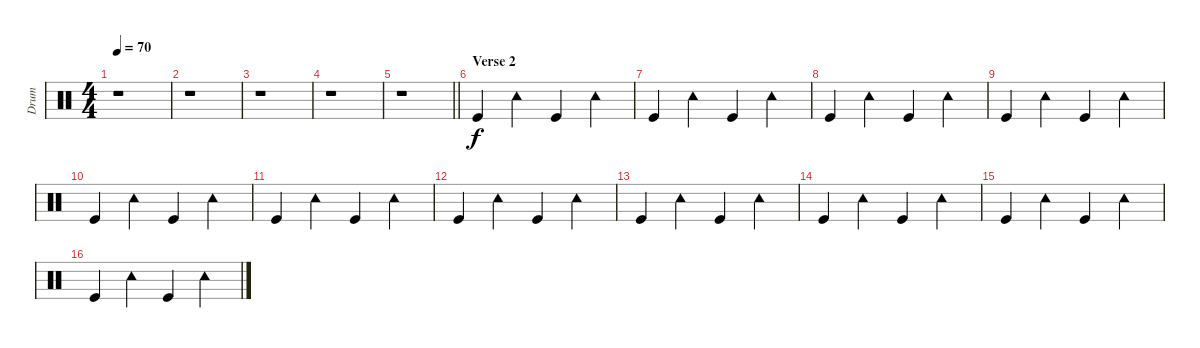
\track ("Drum" "Drum") {instrument percussion}
\staff {score}
\articulation defaults
\ts (4 4)
\tempo 70
\clef neutral
\ks c
r.1{dy f} |
r.1 |
r.1 |
r.1 |
\barLineRight lightlight
r.1 |
\section ("" "Verse 2")
"Kick (hit)".4 "Tambourine (hit)".4 "Kick (hit)".4 "Tambourine (hit)".4 |
"Kick (hit)".4 "Tambourine (hit)".4 "Kick (hit)".4 "Tambourine (hit)".4 |
"Kick (hit)".4 "Tambourine (hit)".4 "Kick (hit)".4 "Tambourine (hit)".4 |
"Kick (hit)".4 "Tambourine (hit)".4 "Kick (hit)".4 "Tambourine (hit)".4 |
"Kick (hit)".4 "Tambourine (hit)".4 "Kick (hit)".4 "Tambourine (hit)".4 |
"Kick (hit)".4 "Tambourine (hit)".4 "Kick (hit)".4 "Tambourine (hit)".4 |
"Kick (hit)".4 "Tambourine (hit)".4 "Kick (hit)".4 "Tambourine (hit)".4 |
"Kick (hit)".4 "Tambourine (hit)".4 "Kick (hit)".4 "Tambourine (hit)".4 |
"Kick (hit)".4 "Tambourine (hit)".4 "Kick (hit)".4 "Tambourine (hit)".4 |
"Kick (hit)".4 "Tambourine (hit)".4 "Kick (hit)".4 "Tambourine (hit)".4 |
"Kick (hit)".4 "Tambourine (hit)".4 "Kick (hit)".4 "Tambourine (hit)".4
